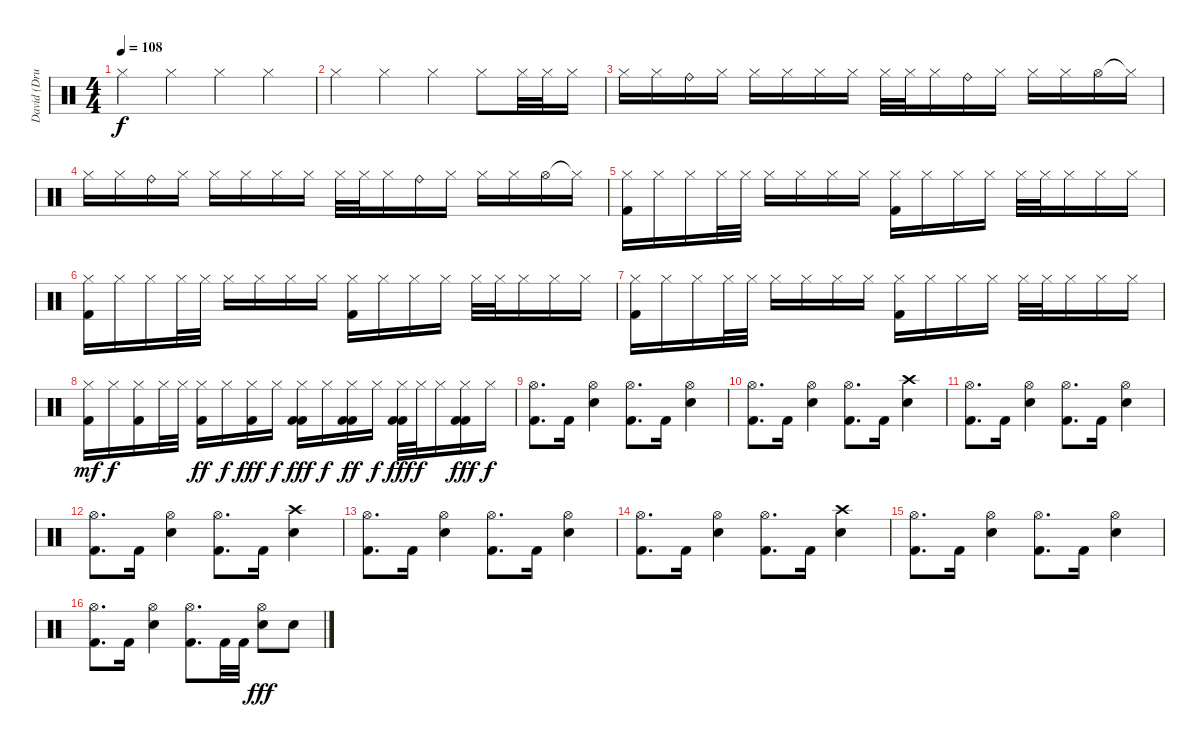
\track ("David (Drumkit)" "David (Dru") {instrument percussion}
\staff {score}
\articulation defaults
\ts (4 4)
\tempo 108
\clef neutral
\ks c "Hi-Hat (closed)".4{dy f} "Hi-Hat (closed)".4 "Hi-Hat (closed)".4 "Hi-Hat (closed)".4
|
"Hi-Hat (closed)".4 "Hi-Hat (closed)".4 "Hi-Hat (closed)".4 "Hi-Hat (closed)".8 "Hi-Hat (closed)".32 "Hi-Hat (closed)".32 "Hi-Hat (closed)".16 |
"Hi-Hat (closed)".16 "Hi-Hat (closed)".16 "Ride (bell)".16 "Hi-Hat (closed)".16 "Hi-Hat (closed)".16 "Hi-Hat (closed)".16 "Hi-Hat (closed)".16 "Hi-Hat (closed)".16 "Hi-Hat (closed)".32 "Hi-Hat (closed)".32 "Hi-Hat (closed)".16 "Ride (bell)".16 "Hi-Hat (closed)".16 "Hi-Hat (closed)".16 "Hi-Hat (closed)".16 "Hi-Hat (open)".16 "Hi-Hat (closed)"{t}.16 |
"Hi-Hat (closed)".16 "Hi-Hat (closed)".16 "Ride (bell)".16 "Hi-Hat (closed)".16 "Hi-Hat (closed)".16 "Hi-Hat (closed)".16 "Hi-Hat (closed)".16 "Hi-Hat (closed)".16 "Hi-Hat (closed)".32 "Hi-Hat (closed)".32 "Hi-Hat (closed)".16 "Ride (bell)".16 "Hi-Hat (closed)".16 "Hi-Hat (closed)".16 "Hi-Hat (closed)".16 "Hi-Hat (open)".16 "Hi-Hat (closed)"{t}.16 |
("Hi-Hat (closed)" "Kick (hit) 2").16 "Hi-Hat (closed)".16 "Hi-Hat (closed)".16 "Hi-Hat (closed)".32 "Hi-Hat (closed)".32 "Hi-Hat (closed)".16 "Hi-Hat (closed)".16 "Hi-Hat (closed)".16 "Hi-Hat (closed)".16 ("Hi-Hat (closed)" "Kick (hit) 2").16 "Hi-Hat (closed)".16 "Hi-Hat (closed)".16 "Hi-Hat (closed)".16 "Hi-Hat (closed)".32 "Hi-Hat (closed)".32 "Hi-Hat (closed)".16 "Hi-Hat (closed)".16 "Hi-Hat (closed)".16 |
("Hi-Hat (closed)" "Kick (hit) 2").16 "Hi-Hat (closed)".16 "Hi-Hat (closed)".16 "Hi-Hat (closed)".32 "Hi-Hat (closed)".32 "Hi-Hat (closed)".16 "Hi-Hat (closed)".16 "Hi-Hat (closed)".16 "Hi-Hat (closed)".16 ("Hi-Hat (closed)" "Kick (hit) 2").16 "Hi-Hat (closed)".16 "Hi-Hat (closed)".16 "Hi-Hat (closed)".16 "Hi-Hat (closed)".32 "Hi-Hat (closed)".32 "Hi-Hat (closed)".16 "Hi-Hat (closed)".16 "Hi-Hat (closed)".16 |
("Hi-Hat (closed)" "Kick (hit) 2").16 "Hi-Hat (closed)".16 "Hi-Hat (closed)".16 "Hi-Hat (closed)".32 "Hi-Hat (closed)".32 "Hi-Hat (closed)".16 "Hi-Hat (closed)".16 "Hi-Hat (closed)".16 "Hi-Hat (closed)".16 ("Hi-Hat (closed)" "Kick (hit) 2").16 "Hi-Hat (closed)".16 "Hi-Hat (closed)".16 "Hi-Hat (closed)".16 "Hi-Hat (closed)".32 "Hi-Hat (closed)".32 "Hi-Hat (closed)".16 "Hi-Hat (closed)".16 "Hi-Hat (closed)".16 |
("Hi-Hat (closed)" "Kick (hit) 2").16{dy mf} "Hi-Hat (closed)".16{dy f} ("Hi-Hat (closed)" "Kick (hit) 2").16 "Hi-Hat (closed)".32 "Hi-Hat (closed)".32 ("Hi-Hat (closed)" "Kick (hit) 2").16{dy ff} "Hi-Hat (closed)".16{dy f} ("Hi-Hat (closed)" "Kick (hit) 2").16{dy fff} "Hi-Hat (closed)".16{dy f} ("Hi-Hat (closed)" "Kick (hit) 2" "Kick (hit) 2").16{dy fff} "Hi-Hat (closed)".16{dy f} ("Hi-Hat (closed)" "Kick (hit) 2" "Kick (hit) 2").16{dy ff} "Hi-Hat (closed)".16{dy f} ("Hi-Hat (closed)" "Kick (hit) 2" "Kick (hit) 2").32{dy fff} "Hi-Hat (closed)".32{dy f} "Hi-Hat (closed)".16 ("Hi-Hat (closed)" "Kick (hit) 2" "Kick (hit) 2").16{dy fff} "Hi-Hat (closed)".16{dy f} |
("Hi-Hat (open)" "Kick (hit) 2").8{d} "Kick (hit) 2".16 ("Hi-Hat (open)" "Electric Snare (hit)").4 ("Hi-Hat (open)" "Kick (hit) 2").8{d} "Kick (hit) 2".16 ("Hi-Hat (open)" "Electric Snare (hit)").4 |
("Hi-Hat (open)" "Kick (hit) 2").8{d} "Kick (hit) 2".16 ("Hi-Hat (open)" "Electric Snare (hit)").4 ("Hi-Hat (open)" "Kick (hit) 2").8{d} "Kick (hit) 2".16 ("Crash high (hit)" "Electric Snare (hit)").4 |
("Hi-Hat (open)" "Kick (hit) 2").8{d} "Kick (hit) 2".16 ("Hi-Hat (open)" "Electric Snare (hit)").4 ("Hi-Hat (open)" "Kick (hit) 2").8{d} "Kick (hit) 2".16 ("Hi-Hat (open)" "Electric Snare (hit)").4 |
("Hi-Hat (open)" "Kick (hit) 2").8{d} "Kick (hit) 2".16 ("Hi-Hat (open)" "Electric Snare (hit)").4 ("Hi-Hat (open)" "Kick (hit) 2").8{d} "Kick (hit) 2".16 ("Crash high (hit)" "Electric Snare (hit)").4 |
("Hi-Hat (open)" "Kick (hit) 2").8{d} "Kick (hit) 2".16 ("Hi-Hat (open)" "Electric Snare (hit)").4 ("Hi-Hat (open)" "Kick (hit) 2").8{d} "Kick (hit) 2".16 ("Hi-Hat (open)" "Electric Snare (hit)").4 |
("Hi-Hat (open)" "Kick (hit) 2").8{d} "Kick (hit) 2".16 ("Hi-Hat (open)" "Electric Snare (hit)").4 ("Hi-Hat (open)" "Kick (hit) 2").8{d} "Kick (hit) 2".16 ("Crash high (hit)" "Electric Snare (hit)").4 |
("Hi-Hat (open)" "Kick (hit) 2").8{d} "Kick (hit) 2".16 ("Hi-Hat (open)" "Electric Snare (hit)").4 ("Hi-Hat (open)" "Kick (hit) 2").8{d} "Kick (hit) 2".16 ("Hi-Hat (open)" "Electric Snare (hit)").4 |
("Hi-Hat (open)" "Kick (hit) 2").8{d} "Kick (hit) 2".16 ("Hi-Hat (open)" "Electric Snare (hit)").4 ("Hi-Hat (open)" "Kick (hit) 2").8{d} "Kick (hit) 2".32 "Kick (hit) 2".32 ("Hi-Hat (open)" "Electric Snare (hit)").8{dy fff} "Electric Snare (hit)".8
